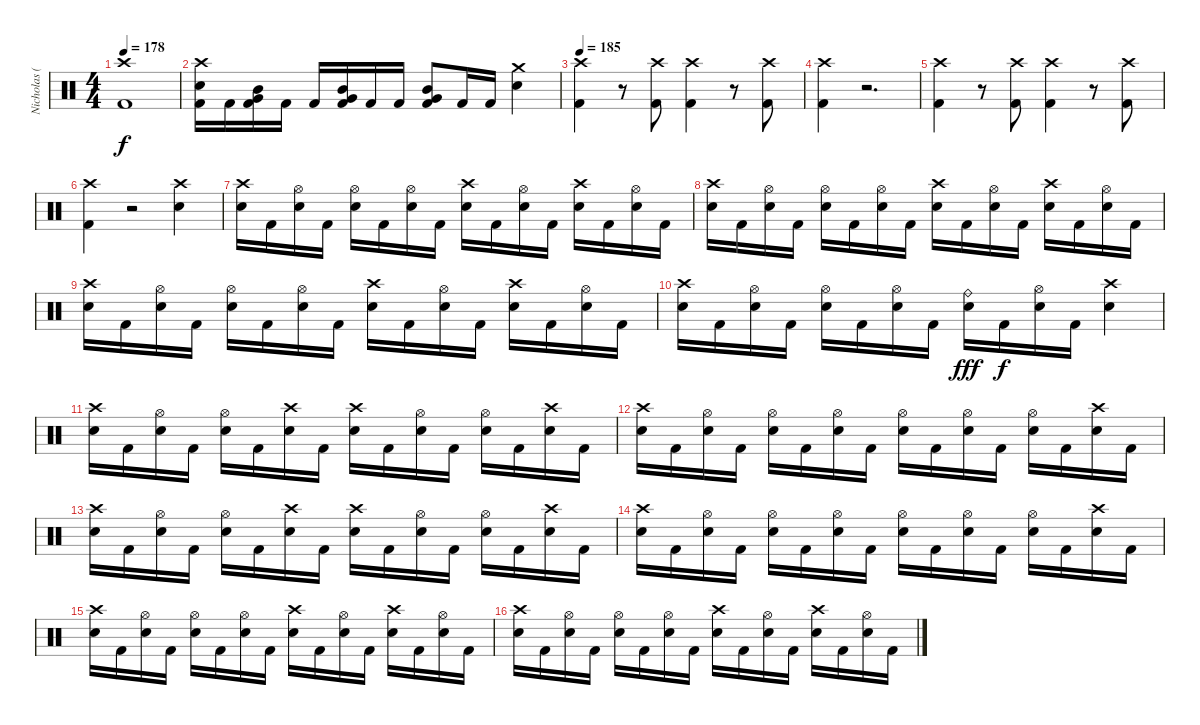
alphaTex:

\track ("Nicholas (Drums)" "Nicholas (") {instrument percussion}
\staff {score}
\articulation defaults
\ts (4 4)
\tempo 178
\clef neutral
\ks c
("Crash high (hit)" "Kick (hit) 2").1{dy f} |
("Crash high (hit)" "Electric Snare (hit)" "Kick (hit) 2").16 "Kick (hit) 2".16 ("Mid Tom (hit)" "Very Low Tom (hit)" "Kick (hit) 2").16 "Kick (hit) 2".16 "Kick (hit) 2".16 ("Mid Tom (hit)" "Very Low Tom (hit)" "Kick (hit) 2").16 "Kick (hit) 2".16 "Kick (hit) 2".16 ("Mid Tom (hit)" "Very Low Tom (hit)" "Kick (hit) 2").8 "Kick (hit) 2".16 "Kick (hit) 2".16 ("Crash medium (hit)" "Electric Snare (hit)").4 |
\tempo 185
("Crash high (hit)" "Kick (hit) 2").4 r.8 ("Crash high (hit)" "Kick (hit) 2").8 ("Crash high (hit)" "Kick (hit) 2").4 r.8 ("Crash high (hit)" "Kick (hit) 2").8 |
("Crash high (hit)" "Kick (hit) 2").4 r.2{d} |
("Crash high (hit)" "Kick (hit) 2").4 r.8 ("Crash high (hit)" "Kick (hit) 2").8 ("Crash high (hit)" "Kick (hit) 2").4 r.8 ("Crash high (hit)" "Kick (hit) 2").8 |
("Crash high (hit)" "Kick (hit) 2").4 r.2 ("Crash high (hit)" "Electric Snare (hit)").4 |
("Crash high (hit)" "Electric Snare (hit)").16 "Kick (hit) 2".16 ("Hi-Hat (open)" "Electric Snare (hit)").16 "Kick (hit) 2".16 ("Hi-Hat (open)" "Electric Snare (hit)").16 "Kick (hit) 2".16 ("Hi-Hat (open)" "Electric Snare (hit)").16 "Kick (hit) 2".16 ("Crash high (hit)" "Electric Snare (hit)").16 "Kick (hit) 2".16 ("Hi-Hat (open)" "Electric Snare (hit)").16 "Kick (hit) 2".16 ("Crash high (hit)" "Electric Snare (hit)").16 "Kick (hit) 2".16 ("Hi-Hat (open)" "Electric Snare (hit)").16 "Kick (hit) 2".16 |
("Crash high (hit)" "Electric Snare (hit)").16 "Kick (hit) 2".16 ("Hi-Hat (open)" "Electric Snare (hit)").16 "Kick (hit) 2".16 ("Hi-Hat (open)" "Electric Snare (hit)").16 "Kick (hit) 2".16 ("Hi-Hat (open)" "Electric Snare (hit)").16 "Kick (hit) 2".16 ("Crash high (hit)" "Electric Snare (hit)").16 "Kick (hit) 2".16 ("Hi-Hat (open)" "Electric Snare (hit)").16 "Kick (hit) 2".16 ("Crash high (hit)" "Electric Snare (hit)").16 "Kick (hit) 2".16 ("Hi-Hat (open)" "Electric Snare (hit)").16 "Kick (hit) 2".16 |
("Crash high (hit)" "Electric Snare (hit)").16 "Kick (hit) 2".16 ("Hi-Hat (open)" "Electric Snare (hit)").16 "Kick (hit) 2".16 ("Hi-Hat (open)" "Electric Snare (hit)").16 "Kick (hit) 2".16 ("Hi-Hat (open)" "Electric Snare (hit)").16 "Kick (hit) 2".16 ("Crash high (hit)" "Electric Snare (hit)").16 "Kick (hit) 2".16 ("Hi-Hat (open)" "Electric Snare (hit)").16 "Kick (hit) 2".16 ("Crash high (hit)" "Electric Snare (hit)").16 "Kick (hit) 2".16 ("Hi-Hat (open)" "Electric Snare (hit)").16 "Kick (hit) 2".16 |
("Crash high (hit)" "Electric Snare (hit)").16 "Kick (hit) 2".16 ("Hi-Hat (open)" "Electric Snare (hit)").16 "Kick (hit) 2".16 ("Hi-Hat (open)" "Electric Snare (hit)").16 "Kick (hit) 2".16 ("Hi-Hat (open)" "Electric Snare (hit)").16 "Kick (hit) 2".16 ("Ride (bell)" "Electric Snare (hit)").16{dy fff} "Kick (hit) 2".16{dy f} ("Hi-Hat (open)" "Electric Snare (hit)").16 "Kick (hit) 2".16 ("Crash high (hit)" "Electric Snare (hit)").4 |
("Crash high (hit)" "Electric Snare (hit)").16 "Kick (hit) 2".16 ("Hi-Hat (open)" "Electric Snare (hit)").16 "Kick (hit) 2".16 ("Hi-Hat (open)" "Electric Snare (hit)").16 "Kick (hit) 2".16 ("Crash high (hit)" "Electric Snare (hit)").16 "Kick (hit) 2".16 ("Crash high (hit)" "Electric Snare (hit)").16 "Kick (hit) 2".16 ("Hi-Hat (open)" "Electric Snare (hit)").16 "Kick (hit) 2".16 ("Hi-Hat (open)" "Electric Snare (hit)").16 "Kick (hit) 2".16 ("Crash high (hit)" "Electric Snare (hit)").16 "Kick (hit) 2".16 |
("Crash high (hit)" "Electric Snare (hit)").16 "Kick (hit) 2".16 ("Hi-Hat (open)" "Electric Snare (hit)").16 "Kick (hit) 2".16 ("Hi-Hat (open)" "Electric Snare (hit)").16 "Kick (hit) 2".16 ("Hi-Hat (open)" "Electric Snare (hit)").16 "Kick (hit) 2".16 ("Hi-Hat (open)" "Electric Snare (hit)").16 "Kick (hit) 2".16 ("Hi-Hat (open)" "Electric Snare (hit)").16 "Kick (hit) 2".16 ("Hi-Hat (open)" "Electric Snare (hit)").16 "Kick (hit) 2".16 ("Crash high (hit)" "Electric Snare (hit)").16 "Kick (hit) 2".16 |
("Crash high (hit)" "Electric Snare (hit)").16 "Kick (hit) 2".16 ("Hi-Hat (open)" "Electric Snare (hit)").16 "Kick (hit) 2".16 ("Hi-Hat (open)" "Electric Snare (hit)").16 "Kick (hit) 2".16 ("Crash high (hit)" "Electric Snare (hit)").16 "Kick (hit) 2".16 ("Crash high (hit)" "Electric Snare (hit)").16 "Kick (hit) 2".16 ("Hi-Hat (open)" "Electric Snare (hit)").16 "Kick (hit) 2".16 ("Hi-Hat (open)" "Electric Snare (hit)").16 "Kick (hit) 2".16 ("Crash high (hit)" "Electric Snare (hit)").16 "Kick (hit) 2".16 |
("Crash high (hit)" "Electric Snare (hit)").16 "Kick (hit) 2".16 ("Hi-Hat (open)" "Electric Snare (hit)").16 "Kick (hit) 2".16 ("Hi-Hat (open)" "Electric Snare (hit)").16 "Kick (hit) 2".16 ("Hi-Hat (open)" "Electric Snare (hit)").16 "Kick (hit) 2".16 ("Hi-Hat (open)" "Electric Snare (hit)").16 "Kick (hit) 2".16 ("Hi-Hat (open)" "Electric Snare (hit)").16 "Kick (hit) 2".16 ("Hi-Hat (open)" "Electric Snare (hit)").16 "Kick (hit) 2".16 ("Crash high (hit)" "Electric Snare (hit)").16 "Kick (hit) 2".16 |
("Crash high (hit)" "Electric Snare (hit)").16 "Kick (hit) 2".16 ("Hi-Hat (open)" "Electric Snare (hit)").16 "Kick (hit) 2".16 ("Hi-Hat (open)" "Electric Snare (hit)").16 "Kick (hit) 2".16 ("Hi-Hat (open)" "Electric Snare (hit)").16 "Kick (hit) 2".16 ("Crash high (hit)" "Electric Snare (hit)").16 "Kick (hit) 2".16 ("Hi-Hat (open)" "Electric Snare (hit)").16 "Kick (hit) 2".16 ("Crash high (hit)" "Electric Snare (hit)").16 "Kick (hit) 2".16 ("Hi-Hat (open)" "Electric Snare (hit)").16 "Kick (hit) 2".16 |
("Crash high (hit)" "Electric Snare (hit)").16 "Kick (hit) 2".16 ("Hi-Hat (open)" "Electric Snare (hit)").16 "Kick (hit) 2".16 ("Hi-Hat (open)" "Electric Snare (hit)").16 "Kick (hit) 2".16 ("Hi-Hat (open)" "Electric Snare (hit)").16 "Kick (hit) 2".16 ("Crash high (hit)" "Electric Snare (hit)").16 "Kick (hit) 2".16 ("Hi-Hat (open)" "Electric Snare (hit)").16 "Kick (hit) 2".16 ("Crash high (hit)" "Electric Snare (hit)").16 "Kick (hit) 2".16 ("Hi-Hat (open)" "Electric Snare (hit)").16 "Kick (hit) 2".16
